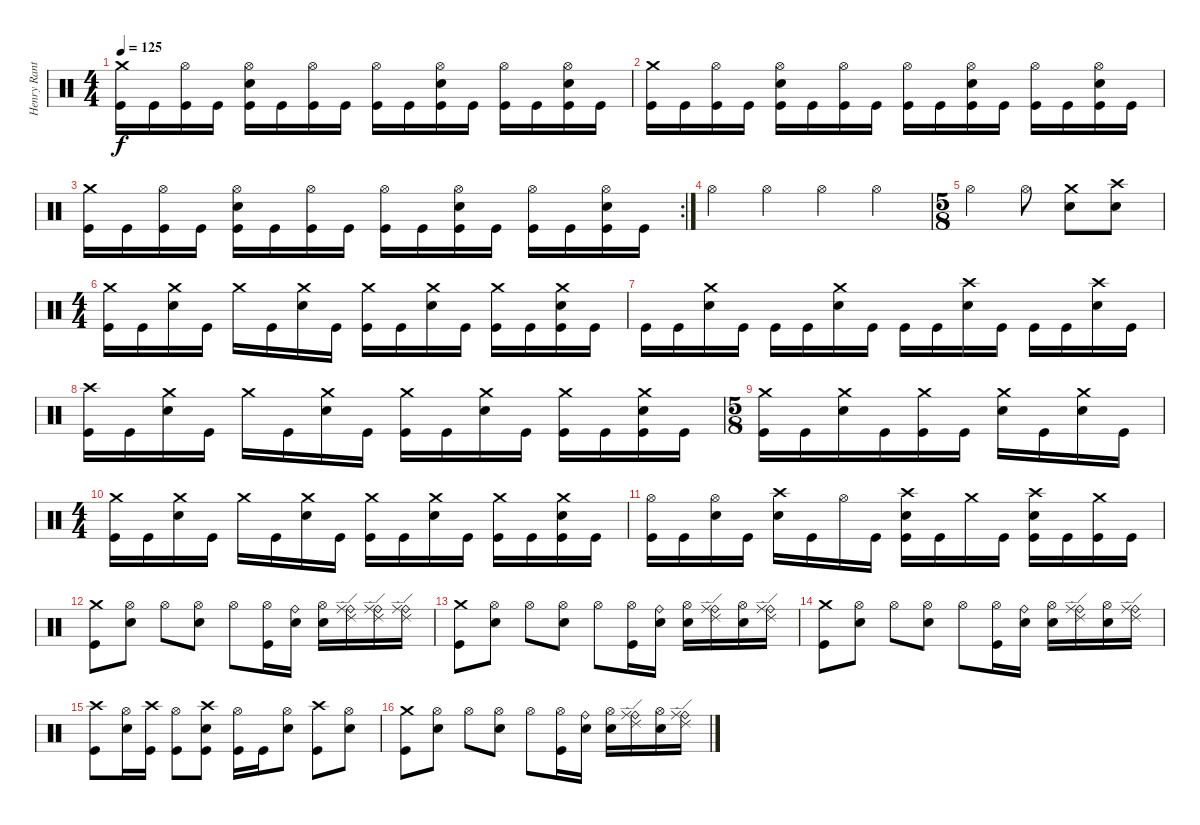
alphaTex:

\track ("Henry Ranta" "Henry Rant") {instrument percussion}
\staff {score}
\articulation defaults
\ts (4 4)
\tempo 125
\clef neutral
\ks c
("Crash medium (hit)" "Kick (hit)").16{dy f} "Kick (hit)".16 ("Hi-Hat (open)" "Kick (hit)").16 "Kick (hit)".16 ("Hi-Hat (open)" "Electric Snare (hit)" "Kick (hit)").16 "Kick (hit)".16 ("Hi-Hat (open)" "Kick (hit)").16 "Kick (hit)".16 ("Hi-Hat (open)" "Kick (hit)").16 "Kick (hit)".16 ("Hi-Hat (open)" "Electric Snare (hit)" "Kick (hit)").16 "Kick (hit)".16 ("Hi-Hat (open)" "Kick (hit)").16 "Kick (hit)".16 ("Hi-Hat (open)" "Electric Snare (hit)" "Kick (hit)").16 "Kick (hit)".16 |
("Crash medium (hit)" "Kick (hit)").16 "Kick (hit)".16 ("Hi-Hat (open)" "Kick (hit)").16 "Kick (hit)".16 ("Hi-Hat (open)" "Electric Snare (hit)" "Kick (hit)").16 "Kick (hit)".16 ("Hi-Hat (open)" "Kick (hit)").16 "Kick (hit)".16 ("Hi-Hat (open)" "Kick (hit)").16 "Kick (hit)".16 ("Hi-Hat (open)" "Electric Snare (hit)" "Kick (hit)").16 "Kick (hit)".16 ("Hi-Hat (open)" "Kick (hit)").16 "Kick (hit)".16 ("Hi-Hat (open)" "Electric Snare (hit)" "Kick (hit)").16 "Kick (hit)".16 |
\rc 2
("Crash medium (hit)" "Kick (hit)").16 "Kick (hit)".16 ("Hi-Hat (open)" "Kick (hit)").16 "Kick (hit)".16 ("Hi-Hat (open)" "Electric Snare (hit)" "Kick (hit)").16 "Kick (hit)".16 ("Hi-Hat (open)" "Kick (hit)").16 "Kick (hit)".16 ("Hi-Hat (open)" "Kick (hit)").16 "Kick (hit)".16 ("Hi-Hat (open)" "Electric Snare (hit)" "Kick (hit)").16 "Kick (hit)".16 ("Hi-Hat (open)" "Kick (hit)").16 "Kick (hit)".16 ("Hi-Hat (open)" "Electric Snare (hit)" "Kick (hit)").16 "Kick (hit)".16 |
"Hi-Hat (open)".4 "Hi-Hat (open)".4 "Hi-Hat (open)".4 "Hi-Hat (open)".4 |
\ts (5 8)
"Hi-Hat (open)".4 "Hi-Hat (open)".8 ("Crash medium (hit)" "Electric Snare (hit)").8 ("Crash high (hit)" "Electric Snare (hit)").8 |
\ts (4 4)
("Crash medium (hit)" "Kick (hit)").16 "Kick (hit)".16 ("Crash medium (hit)" "Electric Snare (hit)").16 "Kick (hit)".16 "Crash medium (hit)".16 "Kick (hit)".16 ("Crash medium (hit)" "Electric Snare (hit)").16 "Kick (hit)".16 ("Crash medium (hit)" "Kick (hit)").16 "Kick (hit)".16 ("Crash medium (hit)" "Electric Snare (hit)").16 "Kick (hit)".16 ("Crash medium (hit)" "Kick (hit)").16 "Kick (hit)".16 ("Crash medium (hit)" "Electric Snare (hit)" "Kick (hit)").16 "Kick (hit)".16 |
"Kick (hit)".16 "Kick (hit)".16 ("Crash medium (hit)" "Electric Snare (hit)").16 "Kick (hit)".16 "Kick (hit)".16 "Kick (hit)".16 ("Crash medium (hit)" "Electric Snare (hit)").16 "Kick (hit)".16 "Kick (hit)".16 "Kick (hit)".16 ("Crash high (hit)" "Electric Snare (hit)").16 "Kick (hit)".16 "Kick (hit)".16 "Kick (hit)".16 ("Crash high (hit)" "Electric Snare (hit)").16 "Kick (hit)".16 |
("Crash high (hit)" "Kick (hit)").16 "Kick (hit)".16 ("Crash medium (hit)" "Electric Snare (hit)").16 "Kick (hit)".16 "Crash medium (hit)".16 "Kick (hit)".16 ("Crash medium (hit)" "Electric Snare (hit)").16 "Kick (hit)".16 ("Crash medium (hit)" "Kick (hit)").16 "Kick (hit)".16 ("Crash medium (hit)" "Electric Snare (hit)").16 "Kick (hit)".16 ("Crash medium (hit)" "Kick (hit)").16 "Kick (hit)".16 ("Crash medium (hit)" "Electric Snare (hit)" "Kick (hit)").16 "Kick (hit)".16 |
\ts (5 8)
("Crash medium (hit)" "Kick (hit)").16 "Kick (hit)".16 ("Crash medium (hit)" "Electric Snare (hit)").16 "Kick (hit)".16 ("Crash medium (hit)" "Kick (hit)").16 "Kick (hit)".16 ("Crash medium (hit)" "Electric Snare (hit)").16 "Kick (hit)".16 ("Crash medium (hit)" "Electric Snare (hit)").16 "Kick (hit)".16 |
\ts (4 4)
("Crash medium (hit)" "Kick (hit)").16 "Kick (hit)".16 ("Crash medium (hit)" "Electric Snare (hit)").16 "Kick (hit)".16 "Crash medium (hit)".16 "Kick (hit)".16 ("Crash medium (hit)" "Electric Snare (hit)").16 "Kick (hit)".16 ("Crash medium (hit)" "Kick (hit)").16 "Kick (hit)".16 ("Crash medium (hit)" "Electric Snare (hit)").16 "Kick (hit)".16 ("Crash medium (hit)" "Kick (hit)").16 "Kick (hit)".16 ("Crash medium (hit)" "Electric Snare (hit)" "Kick (hit)").16 "Kick (hit)".16 |
("Hi-Hat (open)" "Kick (hit)").16 "Kick (hit)".16 ("Hi-Hat (open)" "Electric Snare (hit)").16 "Kick (hit)".16 ("Crash high (hit)" "Electric Snare (hit)").16 "Kick (hit)".16 "Hi-Hat (open)".16 "Kick (hit)".16 ("Crash high (hit)" "Electric Snare (hit)" "Kick (hit)").16 "Kick (hit)".16 "Crash medium (hit)".16 "Kick (hit)".16 ("Crash high (hit)" "Electric Snare (hit)" "Kick (hit)").16 "Kick (hit)".16 ("Crash medium (hit)" "Kick (hit)").16 "Kick (hit)".16 |
("Crash medium (hit)" "Kick (hit)").8 ("Hi-Hat (open)" "Electric Snare (hit)").8 "Hi-Hat (open)".8 ("Hi-Hat (open)" "Electric Snare (hit)").8 "Hi-Hat (open)".8 ("Hi-Hat (open)" "Kick (hit)").16 ("Ride (bell)" "Electric Snare (hit)").16 ("Hi-Hat (open)" "Electric Snare (hit)").16 ("Ride (edge) 2" "Ride (bell)" "Ride (middle)").16 ("Ride (edge) 2" "Ride (bell)" "Ride (middle)").16 ("Ride (edge) 2" "Ride (bell)" "Ride (middle)").16 |
("Crash medium (hit)" "Kick (hit)").8 ("Hi-Hat (open)" "Electric Snare (hit)").8 "Hi-Hat (open)".8 ("Hi-Hat (open)" "Electric Snare (hit)").8 "Hi-Hat (open)".8 ("Hi-Hat (open)" "Kick (hit)").16 ("Ride (bell)" "Electric Snare (hit)").16 ("Hi-Hat (open)" "Electric Snare (hit)").16 ("Ride (edge) 2" "Ride (bell)" "Ride (middle)").16 ("Hi-Hat (open)" "Electric Snare (hit)").16 ("Ride (edge) 2" "Ride (bell)" "Ride (middle)").16 |
("Crash medium (hit)" "Kick (hit)").8 ("Hi-Hat (open)" "Electric Snare (hit)").8 "Hi-Hat (open)".8 ("Hi-Hat (open)" "Electric Snare (hit)").8 "Hi-Hat (open)".8 ("Hi-Hat (open)" "Kick (hit)").16 ("Ride (bell)" "Electric Snare (hit)").16 ("Hi-Hat (open)" "Electric Snare (hit)").16 ("Ride (edge) 2" "Ride (bell)" "Ride (middle)").16 ("Hi-Hat (open)" "Electric Snare (hit)").16 ("Ride (edge) 2" "Ride (bell)" "Ride (middle)").16 |
("Crash high (hit)" "Kick (hit)").8 ("Hi-Hat (open)" "Electric Snare (hit)").16 ("Crash high (hit)" "Kick (hit)").16 ("Hi-Hat (open)" "Kick (hit)").8 ("Crash high (hit)" "Electric Snare (hit)" "Kick (hit)").8 ("Hi-Hat (open)" "Kick (hit)").16 "Kick (hit)".16 ("Hi-Hat (open)" "Electric Snare (hit)").8 ("Crash high (hit)" "Kick (hit)").8 ("Hi-Hat (open)" "Electric Snare (hit)").8 |
("Crash medium (hit)" "Kick (hit)").8 ("Hi-Hat (open)" "Electric Snare (hit)").8 "Hi-Hat (open)".8 ("Hi-Hat (open)" "Electric Snare (hit)").8 "Hi-Hat (open)".8 ("Hi-Hat (open)" "Kick (hit)").16 ("Ride (bell)" "Electric Snare (hit)").16 ("Hi-Hat (open)" "Electric Snare (hit)").16 ("Ride (edge) 2" "Ride (bell)" "Ride (middle)").16 ("Hi-Hat (open)" "Electric Snare (hit)").16 ("Ride (edge) 2" "Ride (bell)" "Ride (middle)").16
